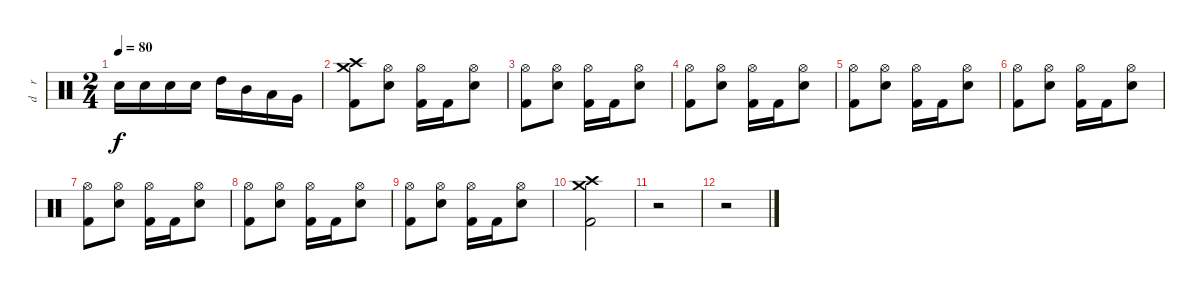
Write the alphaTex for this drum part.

\track ("d    r     u    m    s" "d    r    ") {instrument percussion}
\staff {score}
\articulation defaults
\ts (2 4)
\tempo 80
\clef neutral
\ks c "Electric Snare (hit)".16{dy f} "Electric Snare (hit)".16 "Electric Snare (hit)".16 "Electric Snare (hit)".16 "High Tom (hit)".16 "Mid Tom (hit)".16 "Low Tom (hit)".16 "Very Low Tom (hit)".16
|
("Crash high (hit)" "Crash medium (hit)" "Kick (hit) 2").8 ("Hi-Hat (open)" "Electric Snare (hit)").8 ("Hi-Hat (open)" "Kick (hit) 2").16 "Kick (hit) 2".16 ("Hi-Hat (open)" "Electric Snare (hit)").8 |
("Hi-Hat (open)" "Kick (hit) 2").8 ("Hi-Hat (open)" "Electric Snare (hit)").8 ("Hi-Hat (open)" "Kick (hit) 2").16 "Kick (hit) 2".16 ("Hi-Hat (open)" "Electric Snare (hit)").8 |
("Hi-Hat (open)" "Kick (hit) 2").8 ("Hi-Hat (open)" "Electric Snare (hit)").8 ("Hi-Hat (open)" "Kick (hit) 2").16 "Kick (hit) 2".16 ("Hi-Hat (open)" "Electric Snare (hit)").8 |
("Hi-Hat (open)" "Kick (hit) 2").8 ("Hi-Hat (open)" "Electric Snare (hit)").8 ("Hi-Hat (open)" "Kick (hit) 2").16 "Kick (hit) 2".16 ("Hi-Hat (open)" "Electric Snare (hit)").8 |
("Hi-Hat (open)" "Kick (hit) 2").8 ("Hi-Hat (open)" "Electric Snare (hit)").8 ("Hi-Hat (open)" "Kick (hit) 2").16 "Kick (hit) 2".16 ("Hi-Hat (open)" "Electric Snare (hit)").8 |
("Hi-Hat (open)" "Kick (hit) 2").8 ("Hi-Hat (open)" "Electric Snare (hit)").8 ("Hi-Hat (open)" "Kick (hit) 2").16 "Kick (hit) 2".16 ("Hi-Hat (open)" "Electric Snare (hit)").8 |
("Hi-Hat (open)" "Kick (hit) 2").8 ("Hi-Hat (open)" "Electric Snare (hit)").8 ("Hi-Hat (open)" "Kick (hit) 2").16 "Kick (hit) 2".16 ("Hi-Hat (open)" "Electric Snare (hit)").8 |
("Hi-Hat (open)" "Kick (hit) 2").8 ("Hi-Hat (open)" "Electric Snare (hit)").8 ("Hi-Hat (open)" "Kick (hit) 2").16 "Kick (hit) 2".16 ("Hi-Hat (open)" "Electric Snare (hit)").8 |
("Crash high (hit)" "Crash medium (hit)" "Kick (hit) 2").2 |
r.2 |
r.2
